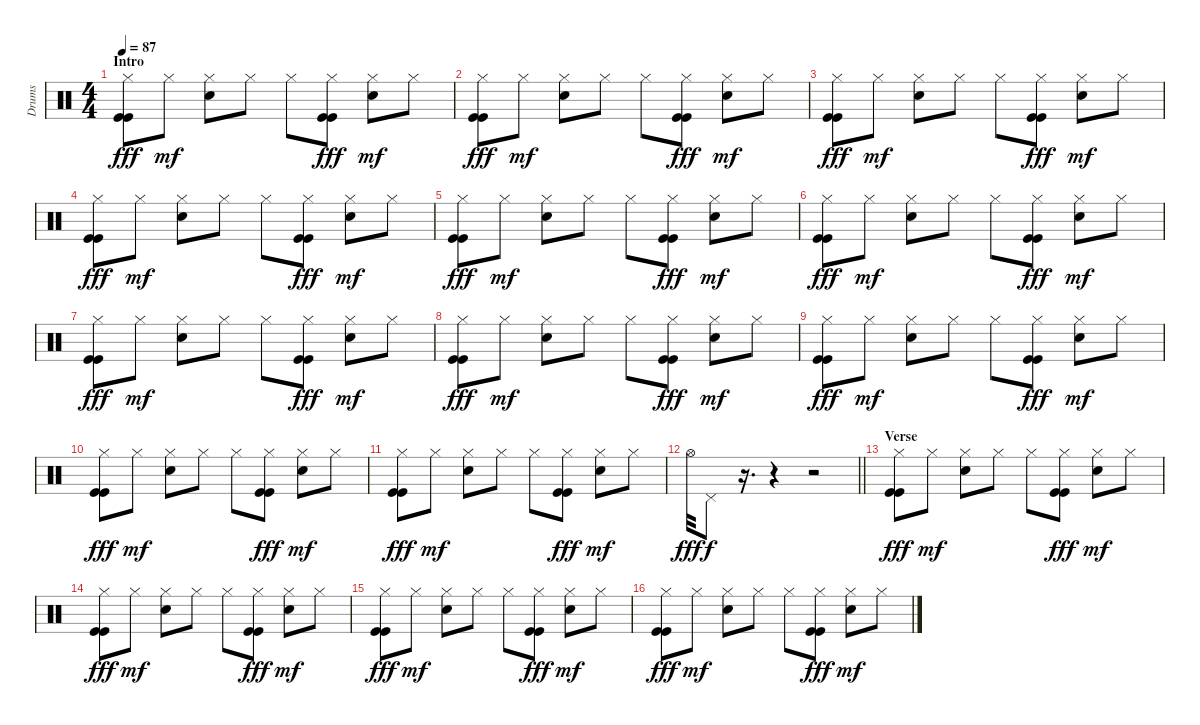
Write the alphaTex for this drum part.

\track ("Drums" "Drums") {instrument percussion}
\staff {score}
\articulation defaults
\ts (4 4)
\section ("" "Intro")
\tempo 87
\clef neutral
\ks c
("Hi-Hat (closed)" "Kick (hit)" "Kick (hit)").8{dy fff} "Hi-Hat (closed)".8{dy mf} ("Hi-Hat (closed)" "Electric Snare (hit)").8 "Hi-Hat (closed)".8 "Hi-Hat (closed)".8 ("Hi-Hat (closed)" "Kick (hit)" "Kick (hit)").8{dy fff} ("Hi-Hat (closed)" "Electric Snare (hit)").8{dy mf} "Hi-Hat (closed)".8 |
("Hi-Hat (closed)" "Kick (hit)" "Kick (hit)").8{dy fff} "Hi-Hat (closed)".8{dy mf} ("Hi-Hat (closed)" "Electric Snare (hit)").8 "Hi-Hat (closed)".8 "Hi-Hat (closed)".8 ("Hi-Hat (closed)" "Kick (hit)" "Kick (hit)").8{dy fff} ("Hi-Hat (closed)" "Electric Snare (hit)").8{dy mf} "Hi-Hat (closed)".8 |
("Hi-Hat (closed)" "Kick (hit)" "Kick (hit)").8{dy fff} "Hi-Hat (closed)".8{dy mf} ("Hi-Hat (closed)" "Electric Snare (hit)").8 "Hi-Hat (closed)".8 "Hi-Hat (closed)".8 ("Hi-Hat (closed)" "Kick (hit)" "Kick (hit)").8{dy fff} ("Hi-Hat (closed)" "Electric Snare (hit)").8{dy mf} "Hi-Hat (closed)".8 |
("Hi-Hat (closed)" "Kick (hit)" "Kick (hit)").8{dy fff} "Hi-Hat (closed)".8{dy mf} ("Hi-Hat (closed)" "Electric Snare (hit)").8 "Hi-Hat (closed)".8 "Hi-Hat (closed)".8 ("Hi-Hat (closed)" "Kick (hit)" "Kick (hit)").8{dy fff} ("Hi-Hat (closed)" "Electric Snare (hit)").8{dy mf} "Hi-Hat (closed)".8 |
("Hi-Hat (closed)" "Kick (hit)" "Kick (hit)").8{dy fff} "Hi-Hat (closed)".8{dy mf} ("Hi-Hat (closed)" "Electric Snare (hit)").8 "Hi-Hat (closed)".8 "Hi-Hat (closed)".8 ("Hi-Hat (closed)" "Kick (hit)" "Kick (hit)").8{dy fff} ("Hi-Hat (closed)" "Electric Snare (hit)").8{dy mf} "Hi-Hat (closed)".8 |
("Hi-Hat (closed)" "Kick (hit)" "Kick (hit)").8{dy fff} "Hi-Hat (closed)".8{dy mf} ("Hi-Hat (closed)" "Electric Snare (hit)").8 "Hi-Hat (closed)".8 "Hi-Hat (closed)".8 ("Hi-Hat (closed)" "Kick (hit)" "Kick (hit)").8{dy fff} ("Hi-Hat (closed)" "Electric Snare (hit)").8{dy mf} "Hi-Hat (closed)".8 |
("Hi-Hat (closed)" "Kick (hit)" "Kick (hit)").8{dy fff} "Hi-Hat (closed)".8{dy mf} ("Hi-Hat (closed)" "Electric Snare (hit)").8 "Hi-Hat (closed)".8 "Hi-Hat (closed)".8 ("Hi-Hat (closed)" "Kick (hit)" "Kick (hit)").8{dy fff} ("Hi-Hat (closed)" "Electric Snare (hit)").8{dy mf} "Hi-Hat (closed)".8 |
("Hi-Hat (closed)" "Kick (hit)" "Kick (hit)").8{dy fff} "Hi-Hat (closed)".8{dy mf} ("Hi-Hat (closed)" "Electric Snare (hit)").8 "Hi-Hat (closed)".8 "Hi-Hat (closed)".8 ("Hi-Hat (closed)" "Kick (hit)" "Kick (hit)").8{dy fff} ("Hi-Hat (closed)" "Electric Snare (hit)").8{dy mf} "Hi-Hat (closed)".8 |
("Hi-Hat (closed)" "Kick (hit)" "Kick (hit)").8{dy fff} "Hi-Hat (closed)".8{dy mf} ("Hi-Hat (closed)" "Electric Snare (hit)").8 "Hi-Hat (closed)".8 "Hi-Hat (closed)".8 ("Hi-Hat (closed)" "Kick (hit)" "Kick (hit)").8{dy fff} ("Hi-Hat (closed)" "Electric Snare (hit)").8{dy mf} "Hi-Hat (closed)".8 |
("Hi-Hat (closed)" "Kick (hit)" "Kick (hit)").8{dy fff} "Hi-Hat (closed)".8{dy mf} ("Hi-Hat (closed)" "Electric Snare (hit)").8 "Hi-Hat (closed)".8 "Hi-Hat (closed)".8 ("Hi-Hat (closed)" "Kick (hit)" "Kick (hit)").8{dy fff} ("Hi-Hat (closed)" "Electric Snare (hit)").8{dy mf} "Hi-Hat (closed)".8 |
("Hi-Hat (closed)" "Kick (hit)" "Kick (hit)").8{dy fff} "Hi-Hat (closed)".8{dy mf} ("Hi-Hat (closed)" "Electric Snare (hit)").8 "Hi-Hat (closed)".8 "Hi-Hat (closed)".8 ("Hi-Hat (closed)" "Kick (hit)" "Kick (hit)").8{dy fff} ("Hi-Hat (closed)" "Electric Snare (hit)").8{dy mf} "Hi-Hat (closed)".8 |
\barLineRight lightlight "Hi-Hat (open)".32{dy fff} "Pedal Hi-Hat (hit)".8{dy f}
r.16{d} r.4 r.2 |
\section ("" "Verse")
("Hi-Hat (closed)" "Kick (hit)" "Kick (hit)").8{dy fff} "Hi-Hat (closed)".8{dy mf} ("Hi-Hat (closed)" "Electric Snare (hit)").8 "Hi-Hat (closed)".8 "Hi-Hat (closed)".8 ("Hi-Hat (closed)" "Kick (hit)" "Kick (hit)").8{dy fff} ("Hi-Hat (closed)" "Electric Snare (hit)").8{dy mf} "Hi-Hat (closed)".8 |
("Hi-Hat (closed)" "Kick (hit)" "Kick (hit)").8{dy fff} "Hi-Hat (closed)".8{dy mf} ("Hi-Hat (closed)" "Electric Snare (hit)").8 "Hi-Hat (closed)".8 "Hi-Hat (closed)".8 ("Hi-Hat (closed)" "Kick (hit)" "Kick (hit)").8{dy fff} ("Hi-Hat (closed)" "Electric Snare (hit)").8{dy mf} "Hi-Hat (closed)".8 |
("Hi-Hat (closed)" "Kick (hit)" "Kick (hit)").8{dy fff} "Hi-Hat (closed)".8{dy mf} ("Hi-Hat (closed)" "Electric Snare (hit)").8 "Hi-Hat (closed)".8 "Hi-Hat (closed)".8 ("Hi-Hat (closed)" "Kick (hit)" "Kick (hit)").8{dy fff} ("Hi-Hat (closed)" "Electric Snare (hit)").8{dy mf} "Hi-Hat (closed)".8 |
("Hi-Hat (closed)" "Kick (hit)" "Kick (hit)").8{dy fff} "Hi-Hat (closed)".8{dy mf} ("Hi-Hat (closed)" "Electric Snare (hit)").8 "Hi-Hat (closed)".8 "Hi-Hat (closed)".8 ("Hi-Hat (closed)" "Kick (hit)" "Kick (hit)").8{dy fff} ("Hi-Hat (closed)" "Electric Snare (hit)").8{dy mf} "Hi-Hat (closed)".8
